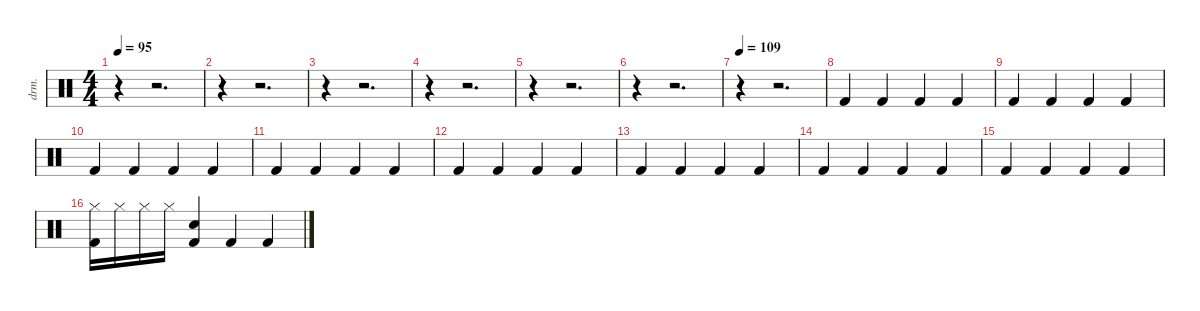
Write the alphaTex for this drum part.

\defaultSystemsLayout 4
\hideDynamics
\bracketExtendMode nobrackets
\otherSystemsTrackNameOrientation horizontal
\track ("Drums" "drm.") {instrument percussion}
\staff {score}
\articulation defaults
\ts (4 4)
\tempo 95
\clef neutral
\ks c
r.4{dy f} r.2{d} |
r.4 r.2{d} |
r.4 r.2{d} |
r.4 r.2{d} |
r.4 r.2{d} |
r.4 r.2{d} |
\tempo 109
r.4 r.2{d} |
"Kick (hit) 2".4 "Kick (hit) 2".4 "Kick (hit) 2".4 "Kick (hit) 2".4 |
"Kick (hit) 2".4 "Kick (hit) 2".4 "Kick (hit) 2".4 "Kick (hit) 2".4 |
"Kick (hit) 2".4 "Kick (hit) 2".4 "Kick (hit) 2".4 "Kick (hit) 2".4 |
"Kick (hit) 2".4 "Kick (hit) 2".4 "Kick (hit) 2".4 "Kick (hit) 2".4 |
"Kick (hit) 2".4 "Kick (hit) 2".4 "Kick (hit) 2".4 "Kick (hit) 2".4 |
"Kick (hit) 2".4 "Kick (hit) 2".4 "Kick (hit) 2".4 "Kick (hit) 2".4 |
"Kick (hit) 2".4 "Kick (hit) 2".4 "Kick (hit) 2".4 "Kick (hit) 2".4 |
"Kick (hit) 2".4 "Kick (hit) 2".4 "Kick (hit) 2".4 "Kick (hit) 2".4 |
("Hi-Hat (closed)" "Kick (hit) 2").16 "Hi-Hat (closed)".16 "Hi-Hat (closed)".16 "Hi-Hat (closed)".16 ("Snare (hit) 2" "Kick (hit) 2").4 "Kick (hit) 2".4 "Kick (hit) 2".4
